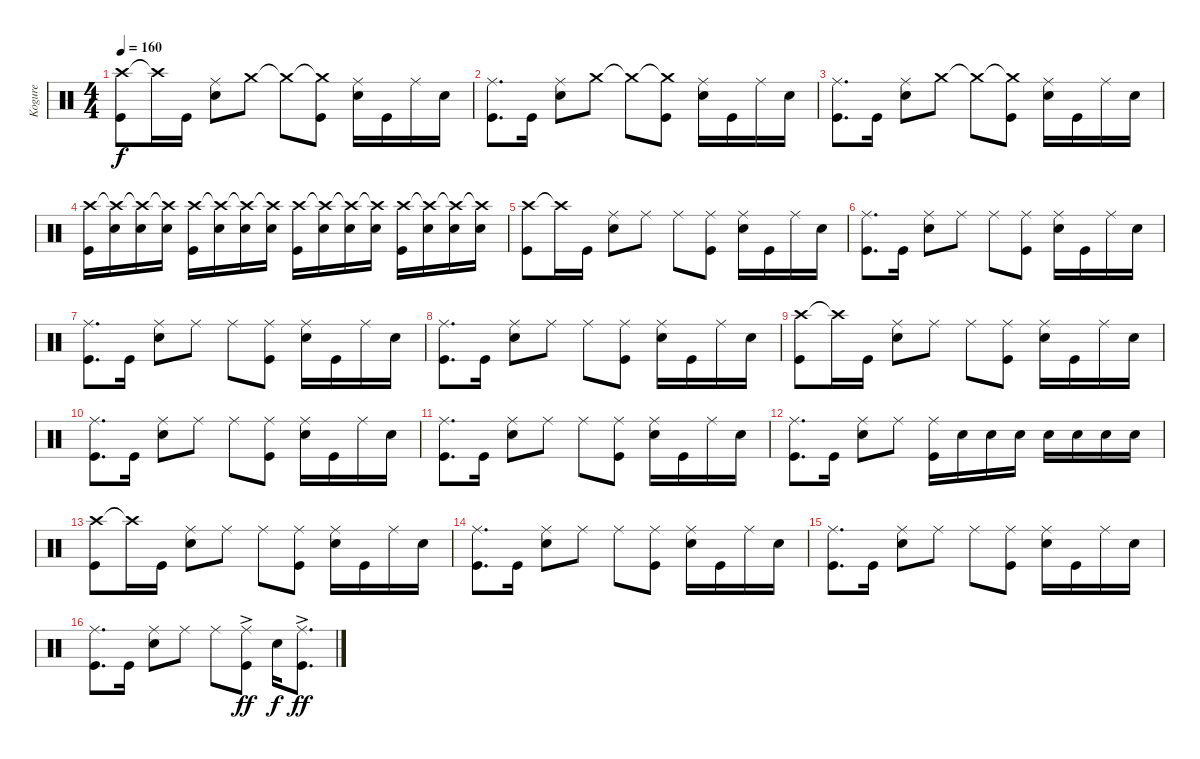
\track ("Kogure" "Kogure") {instrument percussion}
\staff {score}
\articulation defaults
\ts (4 4)
\tempo 160
\clef neutral
\ks c
("Crash high (hit)" "Kick (hit)").8{dy f} "Crash high (hit)"{t}.16 "Kick (hit)".16 ("Ride (middle)" "Snare (hit) 2").8 "Crash medium (hit)".8 "Crash medium (hit)"{t}.8 ("Crash medium (hit)"{t} "Kick (hit)").8 ("Ride (middle)" "Snare (hit) 2").16 "Kick (hit)".16 "Ride (middle)".16 "Snare (hit) 2".16 |
("Ride (middle)" "Kick (hit)").8{d} "Kick (hit)".16 ("Ride (middle)" "Snare (hit) 2").8 "Crash medium (hit)".8 "Crash medium (hit)"{t}.8 ("Crash medium (hit)"{t} "Kick (hit)").8 ("Ride (middle)" "Snare (hit) 2").16 "Kick (hit)".16 "Ride (middle)".16 "Snare (hit) 2".16 |
("Ride (middle)" "Kick (hit)").8{d} "Kick (hit)".16 ("Ride (middle)" "Snare (hit) 2").8 "Crash medium (hit)".8 "Crash medium (hit)"{t}.8 ("Crash medium (hit)"{t} "Kick (hit)").8 ("Ride (middle)" "Snare (hit) 2").16 "Kick (hit)".16 "Ride (middle)".16 "Snare (hit) 2".16 |
("Crash high (hit)" "Kick (hit)").16 ("Crash high (hit)"{t} "Snare (hit) 2").16 ("Crash high (hit)"{t} "Snare (hit) 2").16 ("Crash high (hit)"{t} "Snare (hit) 2").16 ("Crash high (hit)" "Kick (hit)").16 ("Crash high (hit)"{t} "Snare (hit) 2").16 ("Crash high (hit)"{t} "Snare (hit) 2").16 ("Crash high (hit)"{t} "Snare (hit) 2").16 ("Crash high (hit)" "Kick (hit)").16 ("Crash high (hit)"{t} "Snare (hit) 2").16 ("Crash high (hit)"{t} "Snare (hit) 2").16 ("Crash high (hit)"{t} "Snare (hit) 2").16 ("Crash high (hit)" "Kick (hit)").16 ("Crash high (hit)"{t} "Snare (hit) 2").16 ("Crash high (hit)"{t} "Snare (hit) 2").16 ("Crash high (hit)"{t} "Snare (hit) 2").16 |
("Crash high (hit)" "Kick (hit)").8 "Crash high (hit)"{t}.16 "Kick (hit)".16 ("Ride (middle)" "Snare (hit) 2").8 "Ride (middle)".8 "Ride (middle)".8 ("Ride (middle)" "Kick (hit)").8 ("Ride (middle)" "Snare (hit) 2").16 "Kick (hit)".16 "Ride (middle)".16 "Snare (hit) 2".16 |
("Ride (middle)" "Kick (hit)").8{d} "Kick (hit)".16 ("Ride (middle)" "Snare (hit) 2").8 "Ride (middle)".8 "Ride (middle)".8 ("Ride (middle)" "Kick (hit)").8 ("Ride (middle)" "Snare (hit) 2").16 "Kick (hit)".16 "Ride (middle)".16 "Snare (hit) 2".16 |
("Ride (middle)" "Kick (hit)").8{d} "Kick (hit)".16 ("Ride (middle)" "Snare (hit) 2").8 "Ride (middle)".8 "Ride (middle)".8 ("Ride (middle)" "Kick (hit)").8 ("Ride (middle)" "Snare (hit) 2").16 "Kick (hit)".16 "Ride (middle)".16 "Snare (hit) 2".16 |
("Ride (middle)" "Kick (hit)").8{d} "Kick (hit)".16 ("Ride (middle)" "Snare (hit) 2").8 "Ride (middle)".8 "Ride (middle)".8 ("Ride (middle)" "Kick (hit)").8 ("Ride (middle)" "Snare (hit) 2").16 "Kick (hit)".16 "Ride (middle)".16 "Snare (hit) 2".16 |
("Crash high (hit)" "Kick (hit)").8 "Crash high (hit)"{t}.16 "Kick (hit)".16 ("Ride (middle)" "Snare (hit) 2").8 "Ride (middle)".8 "Ride (middle)".8 ("Ride (middle)" "Kick (hit)").8 ("Ride (middle)" "Snare (hit) 2").16 "Kick (hit)".16 "Ride (middle)".16 "Snare (hit) 2".16 |
("Ride (middle)" "Kick (hit)").8{d} "Kick (hit)".16 ("Ride (middle)" "Snare (hit) 2").8 "Ride (middle)".8 "Ride (middle)".8 ("Ride (middle)" "Kick (hit)").8 ("Ride (middle)" "Snare (hit) 2").16 "Kick (hit)".16 "Ride (middle)".16 "Snare (hit) 2".16 |
("Ride (middle)" "Kick (hit)").8{d} "Kick (hit)".16 ("Ride (middle)" "Snare (hit) 2").8 "Ride (middle)".8 "Ride (middle)".8 ("Ride (middle)" "Kick (hit)").8 ("Ride (middle)" "Snare (hit) 2").16 "Kick (hit)".16 "Ride (middle)".16 "Snare (hit) 2".16 |
("Ride (middle)" "Kick (hit)").8{d} "Kick (hit)".16 ("Ride (middle)" "Snare (hit) 2").8 "Ride (middle)".8 ("Ride (middle)" "Kick (hit)").16 "Snare (hit) 2".16 "Snare (hit) 2".16 "Snare (hit) 2".16 "Snare (hit) 2".16 "Snare (hit) 2".16 "Snare (hit) 2".16 "Snare (hit) 2".16 |
("Crash high (hit)" "Kick (hit)").8 "Crash high (hit)"{t}.16 "Kick (hit)".16 ("Ride (middle)" "Snare (hit) 2").8 "Ride (middle)".8 "Ride (middle)".8 ("Ride (middle)" "Kick (hit)").8 ("Ride (middle)" "Snare (hit) 2").16 "Kick (hit)".16 "Ride (middle)".16 "Snare (hit) 2".16 |
("Ride (middle)" "Kick (hit)").8{d} "Kick (hit)".16 ("Ride (middle)" "Snare (hit) 2").8 "Ride (middle)".8 "Ride (middle)".8 ("Ride (middle)" "Kick (hit)").8 ("Ride (middle)" "Snare (hit) 2").16 "Kick (hit)".16 "Ride (middle)".16 "Snare (hit) 2".16 |
("Ride (middle)" "Kick (hit)").8{d} "Kick (hit)".16 ("Ride (middle)" "Snare (hit) 2").8 "Ride (middle)".8 "Ride (middle)".8 ("Ride (middle)" "Kick (hit)").8 ("Ride (middle)" "Snare (hit) 2").16 "Kick (hit)".16 "Ride (middle)".16 "Snare (hit) 2".16 |
("Ride (middle)" "Kick (hit)").8{d} "Kick (hit)".16 ("Ride (middle)" "Snare (hit) 2").8 "Ride (middle)".8 "Ride (middle)".8 ("Ride (middle)"{ac} "Kick (hit)").8{dy ff} "Snare (hit) 2".16{dy f} ("Ride (middle)"{ac} "Kick (hit)").8{d dy ff}
